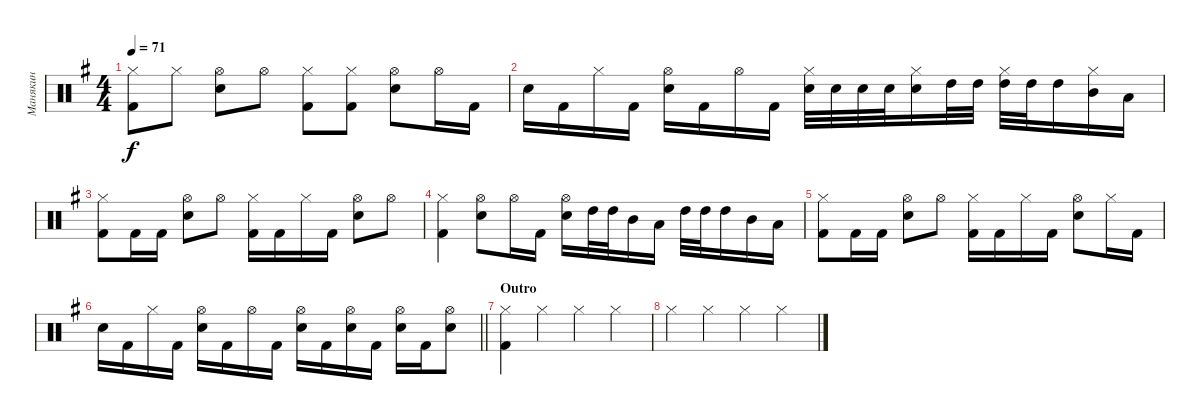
\track ("Манякин" "Манякин") {instrument percussion}
\staff {score}
\articulation defaults
\ts (4 4)
\tempo 71
\clef neutral
\ks eminor
("Hi-Hat (closed)" "Kick (hit) 2").8{dy f} "Hi-Hat (closed)".8 ("Hi-Hat (open)" "Snare (hit) 2").8 "Hi-Hat (open)".8 ("Hi-Hat (closed)" "Kick (hit) 2").8 ("Hi-Hat (closed)" "Kick (hit) 2").8 ("Hi-Hat (open)" "Snare (hit) 2").8 "Hi-Hat (open)".16 "Kick (hit) 2".16 |
"Snare (hit) 2".16 "Kick (hit) 2".16 "Hi-Hat (closed)".16 "Kick (hit) 2".16 ("Hi-Hat (open)" "Snare (hit) 2").16 "Kick (hit) 2".16 "Hi-Hat (open)".16 "Kick (hit) 2".16 ("Hi-Hat (closed)" "Snare (hit) 2").32 "Snare (hit) 2".32 "Snare (hit) 2".32 "Snare (hit) 2".32 ("Hi-Hat (closed)" "Snare (hit) 2").16 "High Tom (hit)".32 "High Tom (hit)".32 ("Hi-Hat (closed)" "High Tom (hit)").32 "High Tom (hit)".32 "High Tom (hit)".16 ("Hi-Hat (closed)" "Mid Tom (hit)").16 "Low Tom (hit)".16 |
("Hi-Hat (closed)" "Kick (hit) 2").8 "Kick (hit) 2".16 "Kick (hit) 2".16 ("Hi-Hat (open)" "Snare (hit) 2").8 "Hi-Hat (open)".8 ("Hi-Hat (closed)" "Kick (hit) 2").16 "Kick (hit) 2".16 "Hi-Hat (closed)".16 "Kick (hit) 2".16 ("Hi-Hat (open)" "Snare (hit) 2").8 "Hi-Hat (open)".8 |
("Hi-Hat (closed)" "Kick (hit) 2").4 ("Hi-Hat (open)" "Snare (hit) 2").8 "Hi-Hat (open)".16 "Kick (hit) 2".16 ("Hi-Hat (open)" "Snare (hit) 2").16 "High Tom (hit)".32 "High Tom (hit)".32 "Mid Tom (hit)".16 "Low Tom (hit)".16 "High Tom (hit)".32 "High Tom (hit)".32 "High Tom (hit)".16 "Mid Tom (hit)".16 "Low Tom (hit)".16 |
("Hi-Hat (closed)" "Kick (hit) 2").8 "Kick (hit) 2".16 "Kick (hit) 2".16 ("Hi-Hat (open)" "Snare (hit) 2").8 "Hi-Hat (open)".8 ("Hi-Hat (closed)" "Kick (hit) 2").16 "Kick (hit) 2".16 "Hi-Hat (closed)".16 "Kick (hit) 2".16 ("Hi-Hat (open)" "Snare (hit) 2").8 "Hi-Hat (closed)".16 "Kick (hit) 2".16 |
\barLineRight lightlight "Snare (hit) 2".16 "Kick (hit) 2".16 "Hi-Hat (closed)".16 "Kick (hit) 2".16
("Hi-Hat (open)" "Snare (hit) 2").16 "Kick (hit) 2".16 "Hi-Hat (open)".16 "Kick (hit) 2".16 ("Hi-Hat (open)" "Snare (hit) 2").16 "Kick (hit) 2".16 ("Hi-Hat (open)" "Snare (hit) 2").16 "Kick (hit) 2".16 ("Hi-Hat (open)" "Snare (hit) 2").16 "Kick (hit) 2".16 ("Hi-Hat (open)" "Snare (hit) 2").8 |
\section ("" "Outro")
("Hi-Hat (closed)" "Kick (hit) 2").4 "Hi-Hat (closed)".4 "Hi-Hat (closed)".4 "Hi-Hat (closed)".4 |
"Hi-Hat (closed)".4 "Hi-Hat (closed)".4 "Hi-Hat (closed)".4 "Hi-Hat (closed)".4
